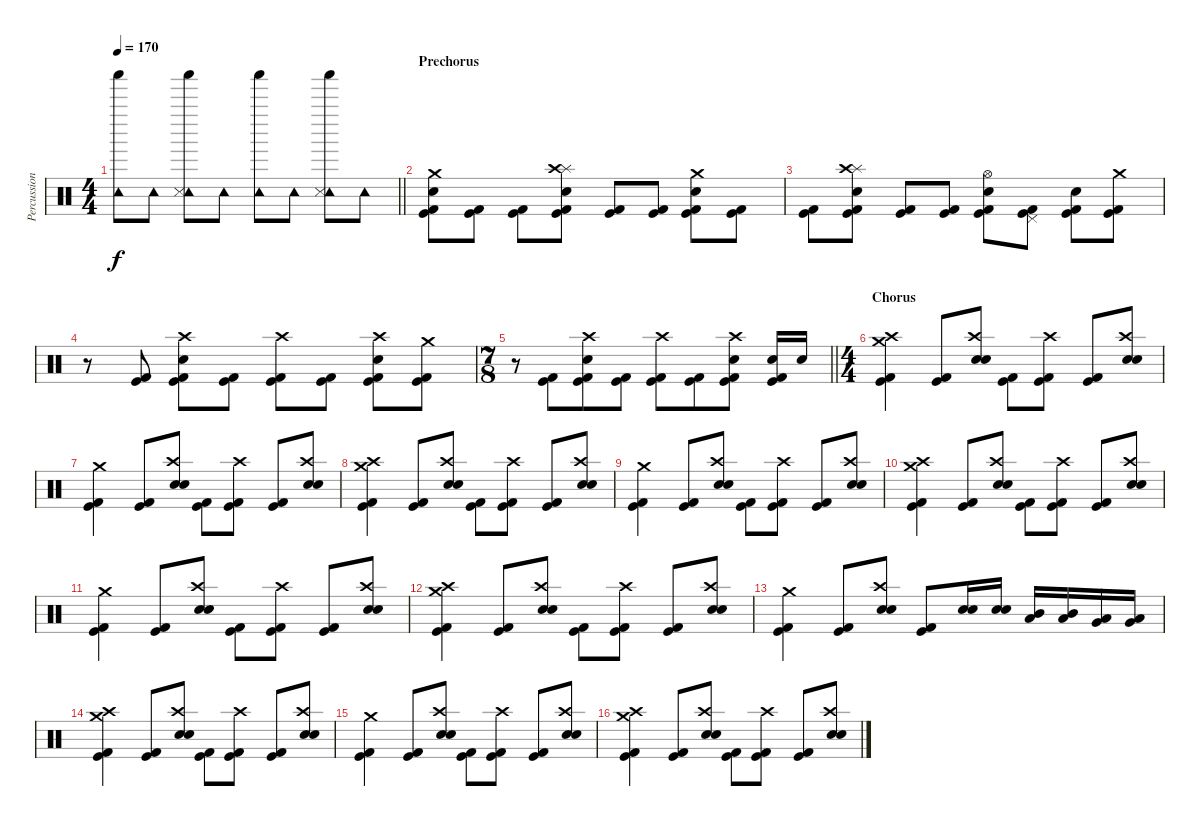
\track ("Percussion" "Percussion") {instrument percussion}
\staff {score}
\articulation defaults
\ts (4 4)
\tempo 170
\clef neutral
\barLineRight lightlight
\ks c
("Shaker (hit)" "Tambourine (hit)").8{dy f} "Tambourine (hit)".8 ("Shaker (hit)" "Tambourine (hit)" "Snare (side stick) 3").8 "Tambourine (hit)".8 ("Shaker (hit)" "Tambourine (hit)").8 "Tambourine (hit)".8 ("Shaker (hit)" "Tambourine (hit)" "Snare (side stick) 3").8 "Tambourine (hit)".8 |
\section ("" "Prechorus")
("Crash medium (hit)" "Electric Snare (hit)" "Kick (hit)" "Kick (hit) 2").8 ("Kick (hit)" "Kick (hit) 2").8 ("Kick (hit)" "Kick (hit) 2").8 ("Splash (hit)" "Crash high (hit)" "Electric Snare (hit)" "Kick (hit)" "Kick (hit) 2").8 ("Kick (hit)" "Kick (hit) 2").8 ("Kick (hit)" "Kick (hit) 2").8 ("Crash medium (hit)" "Electric Snare (hit)" "Kick (hit)" "Kick (hit) 2").8 ("Kick (hit)" "Kick (hit) 2").8 |
("Kick (hit)" "Kick (hit) 2").8 ("Splash (hit)" "Crash high (hit)" "Electric Snare (hit)" "Kick (hit)" "Kick (hit) 2").8 ("Kick (hit)" "Kick (hit) 2").8 ("Kick (hit)" "Kick (hit) 2").8 ("Hi-Hat (open)" "Electric Snare (hit)" "Kick (hit)" "Kick (hit) 2").8 ("Pedal Hi-Hat (hit)" "Kick (hit)" "Kick (hit) 2").8 ("Electric Snare (hit)" "Kick (hit)" "Kick (hit) 2").8 ("Crash medium (hit)" "Kick (hit)" "Kick (hit) 2").8 |
r.8 ("Kick (hit)" "Kick (hit) 2").8 ("Crash high (hit)" "Electric Snare (hit)" "Kick (hit)" "Kick (hit) 2").8 ("Kick (hit)" "Kick (hit) 2").8 ("Crash high (hit)" "Kick (hit)" "Kick (hit) 2").8 ("Kick (hit)" "Kick (hit) 2").8 ("Crash high (hit)" "Electric Snare (hit)" "Kick (hit)" "Kick (hit) 2").8 ("Crash medium (hit)" "Kick (hit)" "Kick (hit) 2").8 |
\ts (7 8)
\barLineRight lightlight
r.8 ("Kick (hit)" "Kick (hit) 2").8 ("Crash high (hit)" "Electric Snare (hit)" "Kick (hit)" "Kick (hit) 2").8 ("Kick (hit)" "Kick (hit) 2").8 ("Crash high (hit)" "Kick (hit)" "Kick (hit) 2").8 ("Kick (hit)" "Kick (hit) 2").8 ("Crash high (hit)" "Electric Snare (hit)" "Kick (hit)" "Kick (hit) 2").8 ("Electric Snare (hit)" "Kick (hit)" "Kick (hit) 2").16 "Electric Snare (hit)".16 |
\ts (4 4)
\section ("" "Chorus")
("Crash medium (hit)" "Crash high (hit)" "Kick (hit)" "Kick (hit) 2").4 ("Kick (hit)" "Kick (hit) 2").8 ("Crash high (hit)" "Snare (hit) 2" "Electric Snare (hit)").8 ("Kick (hit)" "Kick (hit) 2").8 ("Crash high (hit)" "Kick (hit)" "Kick (hit) 2").8 ("Kick (hit)" "Kick (hit) 2").8 ("Crash high (hit)" "Snare (hit) 2" "Electric Snare (hit)").8 |
("Crash medium (hit)" "Kick (hit)" "Kick (hit) 2").4 ("Kick (hit)" "Kick (hit) 2").8 ("Crash high (hit)" "Snare (hit) 2" "Electric Snare (hit)").8 ("Kick (hit)" "Kick (hit) 2").8 ("Crash high (hit)" "Kick (hit)" "Kick (hit) 2").8 ("Kick (hit)" "Kick (hit) 2").8 ("Crash high (hit)" "Snare (hit) 2" "Electric Snare (hit)").8 |
("Crash medium (hit)" "Crash high (hit)" "Kick (hit)" "Kick (hit) 2").4 ("Kick (hit)" "Kick (hit) 2").8 ("Crash high (hit)" "Snare (hit) 2" "Electric Snare (hit)").8 ("Kick (hit)" "Kick (hit) 2").8 ("Crash high (hit)" "Kick (hit)" "Kick (hit) 2").8 ("Kick (hit)" "Kick (hit) 2").8 ("Crash high (hit)" "Snare (hit) 2" "Electric Snare (hit)").8 |
("Crash medium (hit)" "Kick (hit)" "Kick (hit) 2").4 ("Kick (hit)" "Kick (hit) 2").8 ("Crash high (hit)" "Snare (hit) 2" "Electric Snare (hit)").8 ("Kick (hit)" "Kick (hit) 2").8 ("Crash high (hit)" "Kick (hit)" "Kick (hit) 2").8 ("Kick (hit)" "Kick (hit) 2").8 ("Crash high (hit)" "Snare (hit) 2" "Electric Snare (hit)").8 |
("Crash medium (hit)" "Crash high (hit)" "Kick (hit)" "Kick (hit) 2").4 ("Kick (hit)" "Kick (hit) 2").8 ("Crash high (hit)" "Snare (hit) 2" "Electric Snare (hit)").8 ("Kick (hit)" "Kick (hit) 2").8 ("Crash high (hit)" "Kick (hit)" "Kick (hit) 2").8 ("Kick (hit)" "Kick (hit) 2").8 ("Crash high (hit)" "Snare (hit) 2" "Electric Snare (hit)").8 |
("Crash medium (hit)" "Kick (hit)" "Kick (hit) 2").4 ("Kick (hit)" "Kick (hit) 2").8 ("Crash high (hit)" "Snare (hit) 2" "Electric Snare (hit)").8 ("Kick (hit)" "Kick (hit) 2").8 ("Crash high (hit)" "Kick (hit)" "Kick (hit) 2").8 ("Kick (hit)" "Kick (hit) 2").8 ("Crash high (hit)" "Snare (hit) 2" "Electric Snare (hit)").8 |
("Crash medium (hit)" "Crash high (hit)" "Kick (hit)" "Kick (hit) 2").4 ("Kick (hit)" "Kick (hit) 2").8 ("Crash high (hit)" "Snare (hit) 2" "Electric Snare (hit)").8 ("Kick (hit)" "Kick (hit) 2").8 ("Crash high (hit)" "Kick (hit)" "Kick (hit) 2").8 ("Kick (hit)" "Kick (hit) 2").8 ("Crash high (hit)" "Snare (hit) 2" "Electric Snare (hit)").8 |
("Crash medium (hit)" "Kick (hit)" "Kick (hit) 2").4 ("Kick (hit)" "Kick (hit) 2").8 ("Crash high (hit)" "Snare (hit) 2" "Electric Snare (hit)").8 ("Kick (hit)" "Kick (hit) 2").8 ("Snare (hit) 2" "Electric Snare (hit)").16 ("Snare (hit) 2" "Electric Snare (hit)").16 ("Low Tom (hit)" "Mid Tom (hit)").16 ("Low Tom (hit)" "Mid Tom (hit)").16 ("Very Low Tom (hit)" "Low Tom (hit)").16 ("Very Low Tom (hit)" "Low Tom (hit)").16 |
("Crash medium (hit)" "Crash high (hit)" "Kick (hit)" "Kick (hit) 2").4 ("Kick (hit)" "Kick (hit) 2").8 ("Crash high (hit)" "Snare (hit) 2" "Electric Snare (hit)").8 ("Kick (hit)" "Kick (hit) 2").8 ("Crash high (hit)" "Kick (hit)" "Kick (hit) 2").8 ("Kick (hit)" "Kick (hit) 2").8 ("Crash high (hit)" "Snare (hit) 2" "Electric Snare (hit)").8 |
("Crash medium (hit)" "Kick (hit)" "Kick (hit) 2").4 ("Kick (hit)" "Kick (hit) 2").8 ("Crash high (hit)" "Snare (hit) 2" "Electric Snare (hit)").8 ("Kick (hit)" "Kick (hit) 2").8 ("Crash high (hit)" "Kick (hit)" "Kick (hit) 2").8 ("Kick (hit)" "Kick (hit) 2").8 ("Crash high (hit)" "Snare (hit) 2" "Electric Snare (hit)").8 |
("Crash medium (hit)" "Crash high (hit)" "Kick (hit)" "Kick (hit) 2").4 ("Kick (hit)" "Kick (hit) 2").8 ("Crash high (hit)" "Snare (hit) 2" "Electric Snare (hit)").8 ("Kick (hit)" "Kick (hit) 2").8 ("Crash high (hit)" "Kick (hit)" "Kick (hit) 2").8 ("Kick (hit)" "Kick (hit) 2").8 ("Crash high (hit)" "Snare (hit) 2" "Electric Snare (hit)").8
